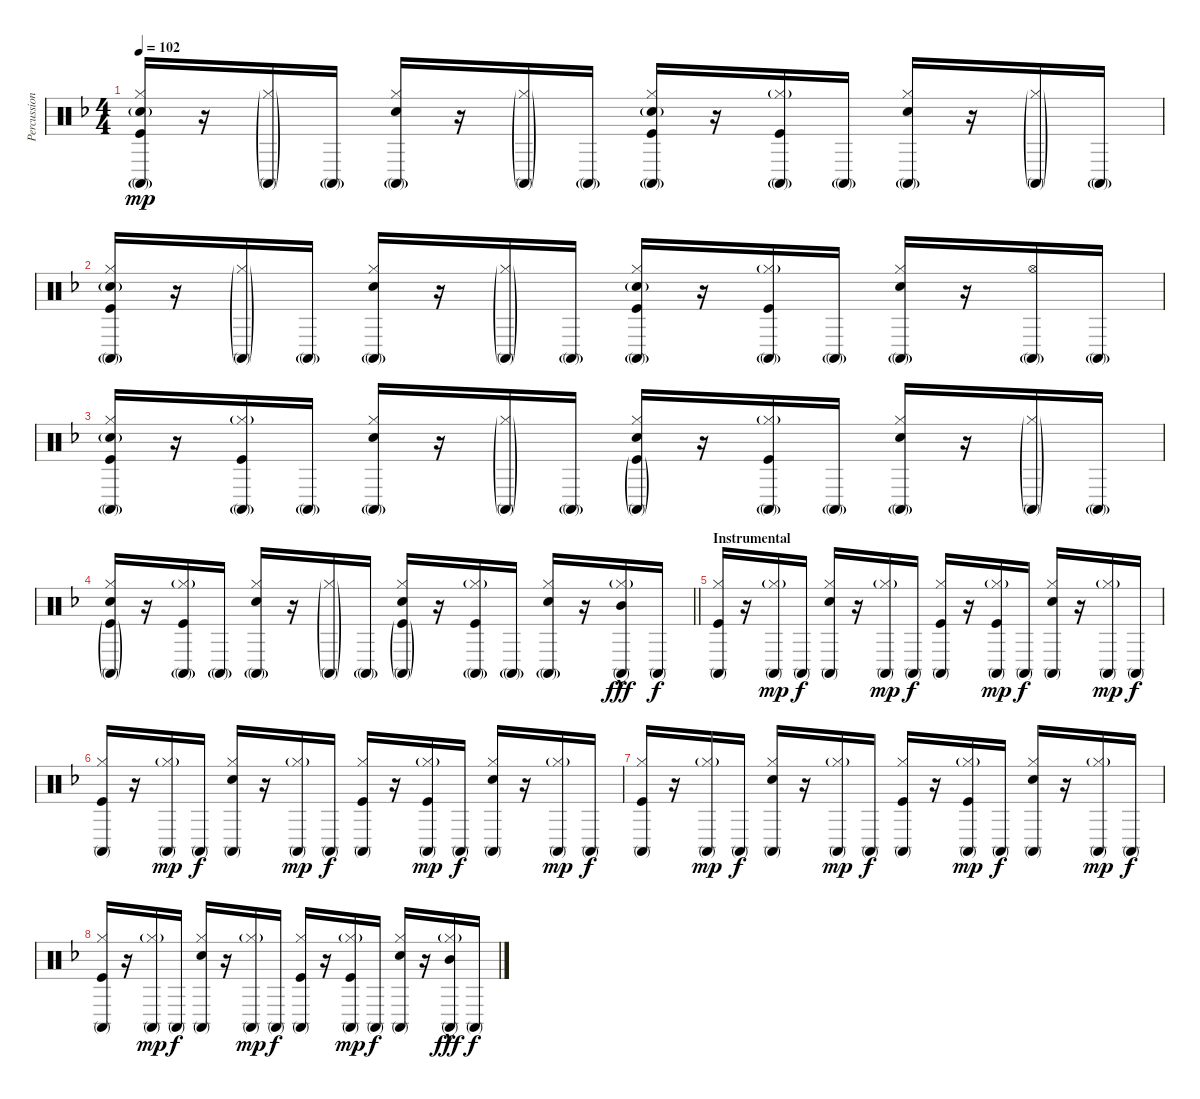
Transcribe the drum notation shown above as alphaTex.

\track ("Percussion" "Percussion") {instrument percussion bank 255}
\staff {score}
\articulation defaults
\ts (4 4)
\tempo 102
\clef neutral
\ks f
("Conga high (mute)"{g} "Hi-Hat (closed)" "Snare (hit) 2"{g} "Kick (hit)").16{dy mp} r.16 ("Conga high (mute)"{g} "Hi-Hat (closed)"{g}).16 "Conga high (mute)"{g}.16 ("Conga high (mute)"{g} "Hi-Hat (closed)" "Snare (hit) 2").16 r.16 ("Conga high (mute)"{g} "Hi-Hat (closed)"{g}).16 "Conga high (mute)"{g}.16 ("Conga high (mute)"{g} "Hi-Hat (closed)" "Snare (hit) 2"{g} "Kick (hit)").16 r.16 ("Conga high (mute)"{g} "Hi-Hat (closed)"{g} "Kick (hit)").16 "Conga high (mute)"{g}.16 ("Conga high (mute)"{g} "Hi-Hat (closed)" "Snare (hit) 2").16 r.16 ("Conga high (mute)"{g} "Hi-Hat (closed)"{g}).16 "Conga high (mute)"{g}.16 |
("Conga high (mute)"{g} "Hi-Hat (closed)" "Snare (hit) 2"{g} "Kick (hit)").16 r.16 ("Conga high (mute)"{g} "Hi-Hat (closed)"{g}).16 "Conga high (mute)"{g}.16 ("Conga high (mute)"{g} "Hi-Hat (closed)" "Snare (hit) 2").16 r.16 ("Conga high (mute)"{g} "Hi-Hat (closed)"{g}).16 "Conga high (mute)"{g}.16 ("Conga high (mute)"{g} "Hi-Hat (closed)" "Snare (hit) 2"{g} "Kick (hit)").16 r.16 ("Conga high (mute)"{g} "Hi-Hat (closed)"{g} "Kick (hit)").16 "Conga high (mute)"{g}.16 ("Conga high (mute)"{g} "Hi-Hat (closed)" "Snare (hit) 2").16 r.16 ("Conga high (mute)"{g} "Hi-Hat (open)").16 "Conga high (mute)"{g}.16 |
("Conga high (mute)"{g} "Hi-Hat (closed)" "Snare (hit) 2"{g} "Kick (hit)").16 r.16 ("Conga high (mute)"{g} "Hi-Hat (closed)"{g} "Kick (hit)").16 "Conga high (mute)"{g}.16 ("Conga high (mute)"{g} "Hi-Hat (closed)" "Snare (hit) 2").16 r.16 ("Conga high (mute)"{g} "Hi-Hat (closed)"{g}).16 "Conga high (mute)"{g}.16 ("Conga high (mute)"{g} "Hi-Hat (closed)" "Snare (hit) 2" "Kick (hit)"{g}).16 r.16 ("Conga high (mute)"{g} "Hi-Hat (closed)"{g} "Kick (hit)").16 "Conga high (mute)"{g}.16 ("Conga high (mute)"{g} "Hi-Hat (closed)" "Snare (hit) 2").16 r.16 ("Conga high (mute)"{g} "Hi-Hat (closed)"{g}).16 "Conga high (mute)"{g}.16 |
\barLineRight lightlight
("Conga high (mute)"{g} "Hi-Hat (closed)" "Snare (hit) 2" "Kick (hit)"{g}).16 r.16 ("Conga high (mute)"{g} "Hi-Hat (closed)"{g} "Kick (hit)").16 "Conga high (mute)"{g}.16 ("Conga high (mute)"{g} "Hi-Hat (closed)" "Snare (hit) 2").16 r.16 ("Conga high (mute)"{g} "Hi-Hat (closed)"{g}).16 "Conga high (mute)"{g}.16 ("Conga high (mute)"{g} "Hi-Hat (closed)" "Snare (hit) 2" "Kick (hit)"{g}).16 r.16 ("Conga high (mute)"{g} "Hi-Hat (closed)"{g} "Kick (hit)").16 "Conga high (mute)"{g}.16 ("Conga high (mute)"{g} "Hi-Hat (closed)" "Snare (hit) 2").16 r.16 ("Conga high (mute)" "Hi-Hat (closed)"{g} "Mid Tom (hit)"{hac}).16{dy fff} "Conga high (mute)".16{dy f} |
\section ("" "Instrumental")
("Conga high (mute)" "Hi-Hat (closed)" "Kick (hit)").16 r.16 ("Conga high (mute)" "Hi-Hat (closed)"{g}).16{dy mp} "Conga high (mute)".16{dy f} ("Conga high (mute)" "Hi-Hat (closed)" "Snare (hit) 2").16 r.16 ("Conga high (mute)" "Hi-Hat (closed)"{g}).16{dy mp} "Conga high (mute)".16{dy f} ("Conga high (mute)" "Hi-Hat (closed)" "Kick (hit)").16 r.16 ("Conga high (mute)" "Hi-Hat (closed)"{g} "Kick (hit)").16{dy mp} "Conga high (mute)".16{dy f} ("Conga high (mute)" "Hi-Hat (closed)" "Snare (hit) 2").16 r.16 ("Conga high (mute)" "Hi-Hat (closed)"{g}).16{dy mp} "Conga high (mute)".16{dy f} |
("Conga high (mute)" "Hi-Hat (closed)" "Kick (hit)").16 r.16 ("Conga high (mute)" "Hi-Hat (closed)"{g}).16{dy mp} "Conga high (mute)".16{dy f} ("Conga high (mute)" "Hi-Hat (closed)" "Snare (hit) 2").16 r.16 ("Conga high (mute)" "Hi-Hat (closed)"{g}).16{dy mp} "Conga high (mute)".16{dy f} ("Conga high (mute)" "Hi-Hat (closed)" "Kick (hit)").16 r.16 ("Conga high (mute)" "Hi-Hat (closed)"{g} "Kick (hit)").16{dy mp} "Conga high (mute)".16{dy f} ("Conga high (mute)" "Hi-Hat (closed)" "Snare (hit) 2").16 r.16 ("Conga high (mute)" "Hi-Hat (closed)"{g}).16{dy mp} "Conga high (mute)".16{dy f} |
("Conga high (mute)" "Hi-Hat (closed)" "Kick (hit)").16 r.16 ("Conga high (mute)" "Hi-Hat (closed)"{g}).16{dy mp} "Conga high (mute)".16{dy f} ("Conga high (mute)" "Hi-Hat (closed)" "Snare (hit) 2").16 r.16 ("Conga high (mute)" "Hi-Hat (closed)"{g}).16{dy mp} "Conga high (mute)".16{dy f} ("Conga high (mute)" "Hi-Hat (closed)" "Kick (hit)").16 r.16 ("Conga high (mute)" "Hi-Hat (closed)"{g} "Kick (hit)").16{dy mp} "Conga high (mute)".16{dy f} ("Conga high (mute)" "Hi-Hat (closed)" "Snare (hit) 2").16 r.16 ("Conga high (mute)" "Hi-Hat (closed)"{g}).16{dy mp} "Conga high (mute)".16{dy f} |
("Conga high (mute)" "Hi-Hat (closed)" "Kick (hit)").16 r.16 ("Conga high (mute)" "Hi-Hat (closed)"{g}).16{dy mp} "Conga high (mute)".16{dy f} ("Conga high (mute)" "Hi-Hat (closed)" "Snare (hit) 2").16 r.16 ("Conga high (mute)" "Hi-Hat (closed)"{g}).16{dy mp} "Conga high (mute)".16{dy f} ("Conga high (mute)" "Hi-Hat (closed)" "Kick (hit)").16 r.16 ("Conga high (mute)" "Hi-Hat (closed)"{g} "Kick (hit)").16{dy mp} "Conga high (mute)".16{dy f} ("Conga high (mute)" "Hi-Hat (closed)" "Snare (hit) 2").16 r.16 ("Conga high (mute)" "Hi-Hat (closed)"{g} "Mid Tom (hit)"{hac}).16{dy fff} "Conga high (mute)".16{dy f}
